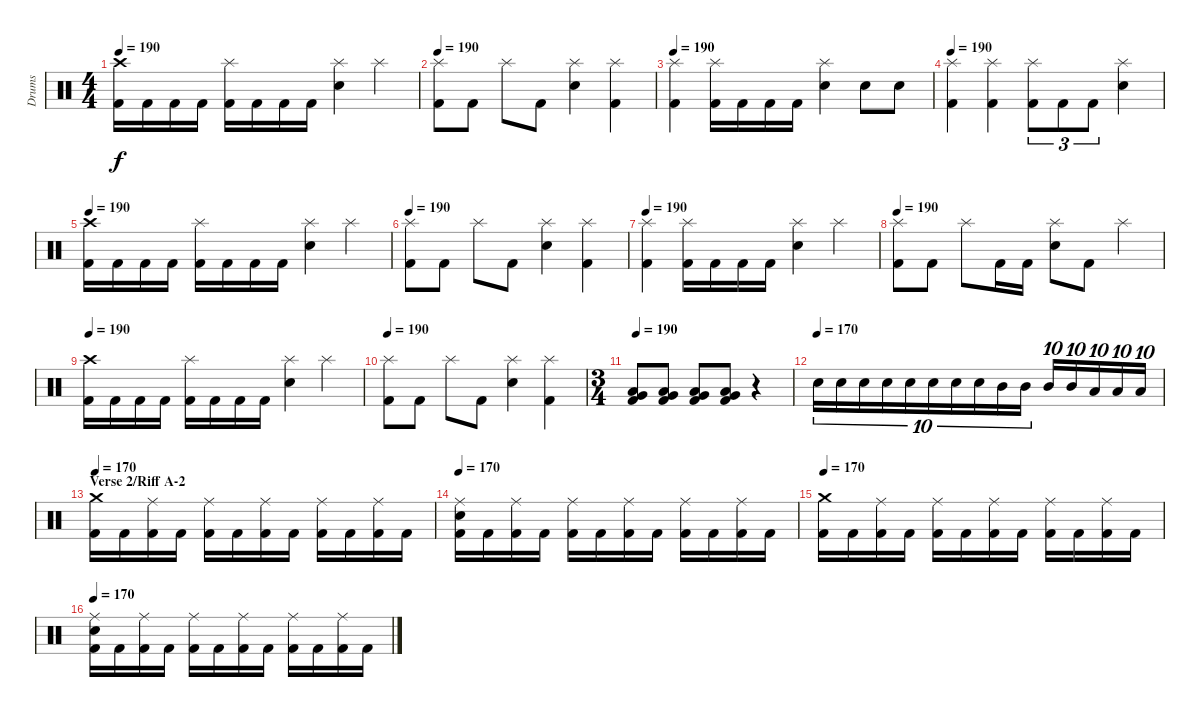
\track ("Drums" "Drums") {instrument percussion}
\staff {score}
\articulation defaults
\ts (4 4)
\tempo 190
\clef neutral
\ks c
("Crash high (hit)" "Kick (hit) 2").16{dy f} "Kick (hit) 2".16 "Kick (hit) 2".16 "Kick (hit) 2".16 ("Splash (hit)" "Kick (hit) 2").16 "Kick (hit) 2".16 "Kick (hit) 2".16 "Kick (hit) 2".16 ("Splash (hit)" "Electric Snare (hit)").4 "Splash (hit)".4 |
\tempo 190
("Splash (hit)" "Kick (hit) 2").8 "Kick (hit) 2".8 "Splash (hit)".8 "Kick (hit) 2".8 ("Splash (hit)" "Electric Snare (hit)").4 ("Splash (hit)" "Kick (hit) 2").4 |
\tempo 190
("Splash (hit)" "Kick (hit) 2").4 ("Splash (hit)" "Kick (hit) 2").16 "Kick (hit) 2".16 "Kick (hit) 2".16 "Kick (hit) 2".16 ("Splash (hit)" "Electric Snare (hit)").4 "Electric Snare (hit)".8 "Electric Snare (hit)".8 |
\tempo 190
("Splash (hit)" "Kick (hit) 2").4 ("Splash (hit)" "Kick (hit) 2").4 ("Splash (hit)" "Kick (hit) 2").8{tu (3 2)} "Kick (hit) 2".8{tu (3 2)} "Kick (hit) 2".8{tu (3 2)} ("Splash (hit)" "Electric Snare (hit)").4 |
\tempo 190
("Crash high (hit)" "Kick (hit) 2").16 "Kick (hit) 2".16 "Kick (hit) 2".16 "Kick (hit) 2".16 ("Splash (hit)" "Kick (hit) 2").16 "Kick (hit) 2".16 "Kick (hit) 2".16 "Kick (hit) 2".16 ("Splash (hit)" "Electric Snare (hit)").4 "Splash (hit)".4 |
\tempo 190
("Splash (hit)" "Kick (hit) 2").8 "Kick (hit) 2".8 "Splash (hit)".8 "Kick (hit) 2".8 ("Splash (hit)" "Electric Snare (hit)").4 ("Splash (hit)" "Kick (hit) 2").4 |
\tempo 190
("Splash (hit)" "Kick (hit) 2").4 ("Splash (hit)" "Kick (hit) 2").16 "Kick (hit) 2".16 "Kick (hit) 2".16 "Kick (hit) 2".16 ("Splash (hit)" "Electric Snare (hit)").4 "Splash (hit)".4 |
\tempo 190
("Splash (hit)" "Kick (hit) 2").8 "Kick (hit) 2".8 "Splash (hit)".8 "Kick (hit) 2".16 "Kick (hit) 2".16 ("Splash (hit)" "Electric Snare (hit)").8 "Kick (hit) 2".8 "Splash (hit)".4 |
\tempo 190
("Crash high (hit)" "Kick (hit) 2").16 "Kick (hit) 2".16 "Kick (hit) 2".16 "Kick (hit) 2".16 ("Splash (hit)" "Kick (hit) 2").16 "Kick (hit) 2".16 "Kick (hit) 2".16 "Kick (hit) 2".16 ("Splash (hit)" "Electric Snare (hit)").4 "Splash (hit)".4 |
\tempo 190
("Splash (hit)" "Kick (hit) 2").8 "Kick (hit) 2".8 "Splash (hit)".8 "Kick (hit) 2".8 ("Splash (hit)" "Electric Snare (hit)").4 ("Splash (hit)" "Kick (hit) 2").4 |
\ts (3 4)
\tempo 190
("Low Tom (hit)" "Very Low Tom (hit)" "Kick (hit) 2").8 ("Low Tom (hit)" "Very Low Tom (hit)" "Kick (hit) 2").8 ("Low Tom (hit)" "Very Low Tom (hit)" "Kick (hit) 2").8 ("Low Tom (hit)" "Very Low Tom (hit)" "Kick (hit) 2").8 r.4 |
\tempo (170)
"Electric Snare (hit)".16{tu (10 8)} "Electric Snare (hit)".16{tu (10 8)} "Electric Snare (hit)".16{tu (10 8)} "Electric Snare (hit)".16{tu (10 8)} "Electric Snare (hit)".16{tu (10 8)} "Electric Snare (hit)".16{tu (10 8)} "Electric Snare (hit)".16{tu (10 8)} "Electric Snare (hit)".16{tu (10 8)} "Mid Tom (hit)".16{tu (10 8)} "Mid Tom (hit)".16{tu (10 8)} "Mid Tom (hit)".16{tu (10 8)} "Mid Tom (hit)".16{tu (10 8)} "Low Tom (hit)".16{tu (10 8)} "Low Tom (hit)".16{tu (10 8)} "Low Tom (hit)".16{tu (10 8)} |
\section ("" "Verse 2/Riff A-2")
\tempo 170
("Crash medium (hit)" "Kick (hit) 2").16 "Kick (hit) 2".16 ("Ride (middle)" "Kick (hit) 2").16 "Kick (hit) 2".16 ("Ride (middle)" "Kick (hit) 2").16 "Kick (hit) 2".16 ("Ride (middle)" "Kick (hit) 2").16 "Kick (hit) 2".16 ("Ride (middle)" "Kick (hit) 2").16 "Kick (hit) 2".16 ("Ride (middle)" "Kick (hit) 2").16 "Kick (hit) 2".16 |
\tempo 170
("Ride (middle)" "Electric Snare (hit)" "Kick (hit) 2").16 "Kick (hit) 2".16 ("Ride (middle)" "Kick (hit) 2").16 "Kick (hit) 2".16 ("Ride (middle)" "Kick (hit) 2").16 "Kick (hit) 2".16 ("Ride (middle)" "Kick (hit) 2").16 "Kick (hit) 2".16 ("Ride (middle)" "Kick (hit) 2").16 "Kick (hit) 2".16 ("Ride (middle)" "Kick (hit) 2").16 "Kick (hit) 2".16 |
\tempo 170
("Crash medium (hit)" "Kick (hit) 2").16 "Kick (hit) 2".16 ("Ride (middle)" "Kick (hit) 2").16 "Kick (hit) 2".16 ("Ride (middle)" "Kick (hit) 2").16 "Kick (hit) 2".16 ("Ride (middle)" "Kick (hit) 2").16 "Kick (hit) 2".16 ("Ride (middle)" "Kick (hit) 2").16 "Kick (hit) 2".16 ("Ride (middle)" "Kick (hit) 2").16 "Kick (hit) 2".16 |
\tempo 170
("Ride (middle)" "Electric Snare (hit)" "Kick (hit) 2").16 "Kick (hit) 2".16 ("Ride (middle)" "Kick (hit) 2").16 "Kick (hit) 2".16 ("Ride (middle)" "Kick (hit) 2").16 "Kick (hit) 2".16 ("Ride (middle)" "Kick (hit) 2").16 "Kick (hit) 2".16 ("Ride (middle)" "Kick (hit) 2").16 "Kick (hit) 2".16 ("Ride (middle)" "Kick (hit) 2").16 "Kick (hit) 2".16
